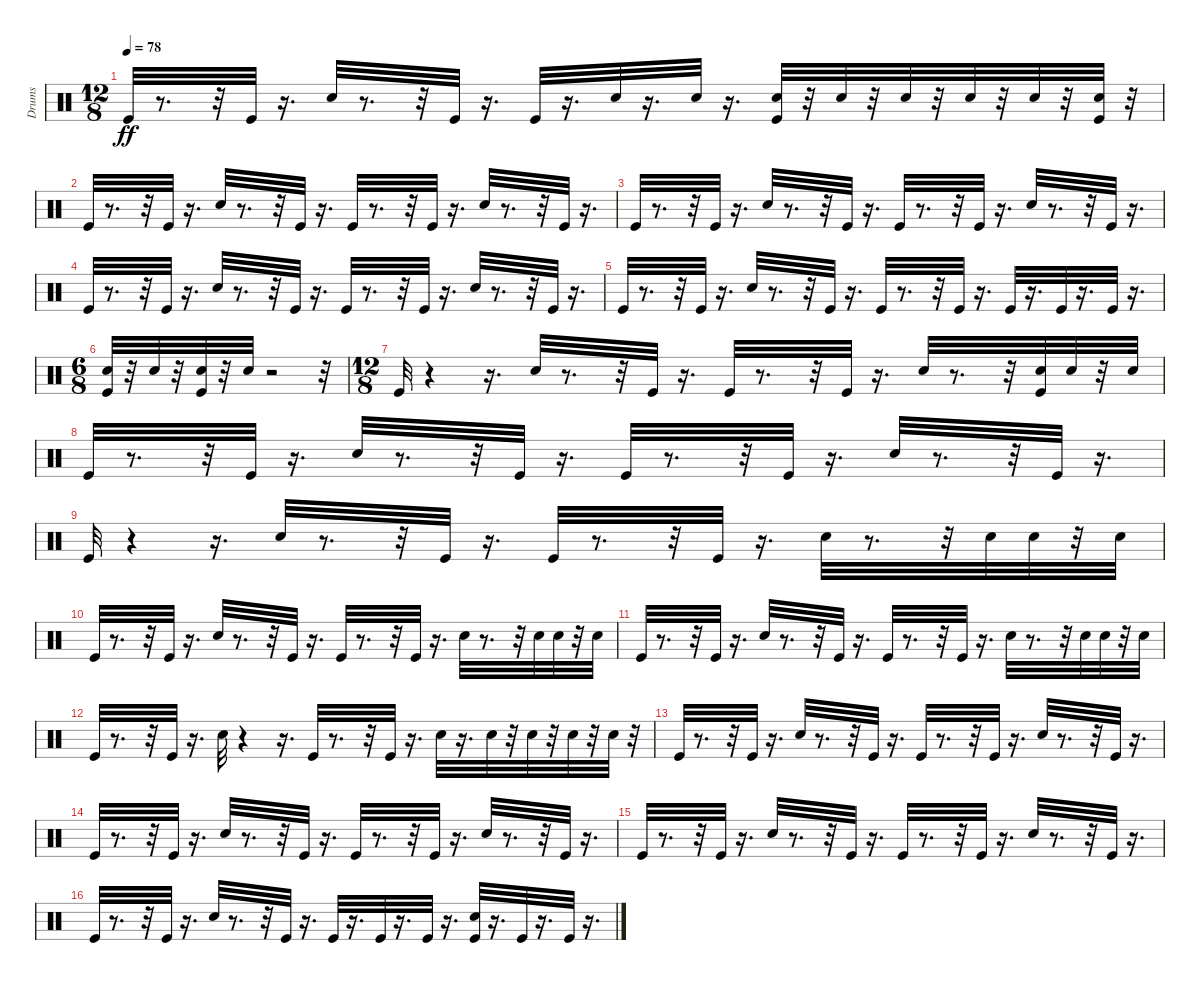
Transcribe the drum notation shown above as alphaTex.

\track ("Drums" "Drums") {instrument percussion}
\staff {score}
\articulation defaults
\ts (12 8)
\tempo 78
\clef neutral
\ks c "Kick (hit)".32{dy ff}
r.8{d} r.32 "Kick (hit)".32 r.16{d} "Electric Snare (hit)".32 r.8{d} r.32 "Kick (hit)".32 r.16{d} "Kick (hit)".32 r.16{d} "Electric Snare (hit)".32 r.16{d} "Electric Snare (hit)".32 r.16{d} ("Kick (hit)" "Electric Snare (hit)").32 r.32 "Electric Snare (hit)".32 r.32 "Electric Snare (hit)".32 r.32 "Electric Snare (hit)".32 r.32 "Electric Snare (hit)".32 r.32 ("Electric Snare (hit)" "Kick (hit)").32 r.32 |
"Kick (hit)".32 r.8{d} r.32 "Kick (hit)".32 r.16{d} "Electric Snare (hit)".32 r.8{d} r.32 "Kick (hit)".32 r.16{d} "Kick (hit)".32 r.8{d} r.32 "Kick (hit)".32 r.16{d} "Electric Snare (hit)".32 r.8{d} r.32 "Kick (hit)".32 r.16{d} |
"Kick (hit)".32 r.8{d} r.32 "Kick (hit)".32 r.16{d} "Electric Snare (hit)".32 r.8{d} r.32 "Kick (hit)".32 r.16{d} "Kick (hit)".32 r.8{d} r.32 "Kick (hit)".32 r.16{d} "Electric Snare (hit)".32 r.8{d} r.32 "Kick (hit)".32 r.16{d} |
"Kick (hit)".32 r.8{d} r.32 "Kick (hit)".32 r.16{d} "Electric Snare (hit)".32 r.8{d} r.32 "Kick (hit)".32 r.16{d} "Kick (hit)".32 r.8{d} r.32 "Kick (hit)".32 r.16{d} "Electric Snare (hit)".32 r.8{d} r.32 "Kick (hit)".32 r.16{d} |
"Kick (hit)".32 r.8{d} r.32 "Kick (hit)".32 r.16{d} "Electric Snare (hit)".32 r.8{d} r.32 "Kick (hit)".32 r.16{d} "Kick (hit)".32 r.8{d} r.32 "Kick (hit)".32 r.16{d} "Kick (hit)".32 r.16{d} "Kick (hit)".32 r.16{d} "Kick (hit)".32 r.16{d} |
\ts (6 8)
("Kick (hit)" "Electric Snare (hit)").32 r.32 "Electric Snare (hit)".32 r.32 ("Electric Snare (hit)" "Kick (hit)").32 r.32 "Electric Snare (hit)".32 r.2 r.32 |
\ts (12 8)
"Kick (hit)".32 r.4 r.16{d} "Electric Snare (hit)".32 r.8{d} r.32 "Kick (hit)".32 r.16{d} "Kick (hit)".32 r.8{d} r.32 "Kick (hit)".32 r.16{d} "Electric Snare (hit)".32 r.8{d} r.32 ("Kick (hit)" "Electric Snare (hit)").32 "Electric Snare (hit)".32 r.32 "Electric Snare (hit)".32 |
"Kick (hit)".32 r.8{d} r.32 "Kick (hit)".32 r.16{d} "Electric Snare (hit)".32 r.8{d} r.32 "Kick (hit)".32 r.16{d} "Kick (hit)".32 r.8{d} r.32 "Kick (hit)".32 r.16{d} "Electric Snare (hit)".32 r.8{d} r.32 "Kick (hit)".32 r.16{d} |
"Kick (hit)".32 r.4 r.16{d} "Electric Snare (hit)".32 r.8{d} r.32 "Kick (hit)".32 r.16{d} "Kick (hit)".32 r.8{d} r.32 "Kick (hit)".32 r.16{d} "Electric Snare (hit)".32 r.8{d} r.32 "Electric Snare (hit)".32 "Electric Snare (hit)".32 r.32 "Electric Snare (hit)".32 |
"Kick (hit)".32 r.8{d} r.32 "Kick (hit)".32 r.16{d} "Electric Snare (hit)".32 r.8{d} r.32 "Kick (hit)".32 r.16{d} "Kick (hit)".32 r.8{d} r.32 "Kick (hit)".32 r.16{d} "Electric Snare (hit)".32 r.8{d} r.32 "Electric Snare (hit)".32 "Electric Snare (hit)".32 r.32 "Electric Snare (hit)".32 |
"Kick (hit)".32 r.8{d} r.32 "Kick (hit)".32 r.16{d} "Electric Snare (hit)".32 r.8{d} r.32 "Kick (hit)".32 r.16{d} "Kick (hit)".32 r.8{d} r.32 "Kick (hit)".32 r.16{d} "Electric Snare (hit)".32 r.8{d} r.32 "Electric Snare (hit)".32 "Electric Snare (hit)".32 r.32 "Electric Snare (hit)".32 |
"Kick (hit)".32 r.8{d} r.32 "Kick (hit)".32 r.16{d} "Electric Snare (hit)".32 r.4 r.16{d} "Kick (hit)".32 r.8{d} r.32 "Kick (hit)".32 r.16{d} "Electric Snare (hit)".32 r.16{d} "Electric Snare (hit)".32 r.32 "Electric Snare (hit)".32 r.32 "Electric Snare (hit)".32 r.32 "Electric Snare (hit)".32 r.32 |
"Kick (hit)".32 r.8{d} r.32 "Kick (hit)".32 r.16{d} "Electric Snare (hit)".32 r.8{d} r.32 "Kick (hit)".32 r.16{d} "Kick (hit)".32 r.8{d} r.32 "Kick (hit)".32 r.16{d} "Electric Snare (hit)".32 r.8{d} r.32 "Kick (hit)".32 r.16{d} |
"Kick (hit)".32 r.8{d} r.32 "Kick (hit)".32 r.16{d} "Electric Snare (hit)".32 r.8{d} r.32 "Kick (hit)".32 r.16{d} "Kick (hit)".32 r.8{d} r.32 "Kick (hit)".32 r.16{d} "Electric Snare (hit)".32 r.8{d} r.32 "Kick (hit)".32 r.16{d} |
"Kick (hit)".32 r.8{d} r.32 "Kick (hit)".32 r.16{d} "Electric Snare (hit)".32 r.8{d} r.32 "Kick (hit)".32 r.16{d} "Kick (hit)".32 r.8{d} r.32 "Kick (hit)".32 r.16{d} "Electric Snare (hit)".32 r.8{d} r.32 "Kick (hit)".32 r.16{d} |
"Kick (hit)".32 r.8{d} r.32 "Kick (hit)".32 r.16{d} "Electric Snare (hit)".32 r.8{d} r.32 "Kick (hit)".32 r.16{d} "Kick (hit)".32 r.16{d} "Kick (hit)".32 r.16{d} "Kick (hit)".32 r.16{d} ("Electric Snare (hit)" "Kick (hit)").32 r.16{d} "Kick (hit)".32 r.16{d} "Kick (hit)".32 r.16{d}
